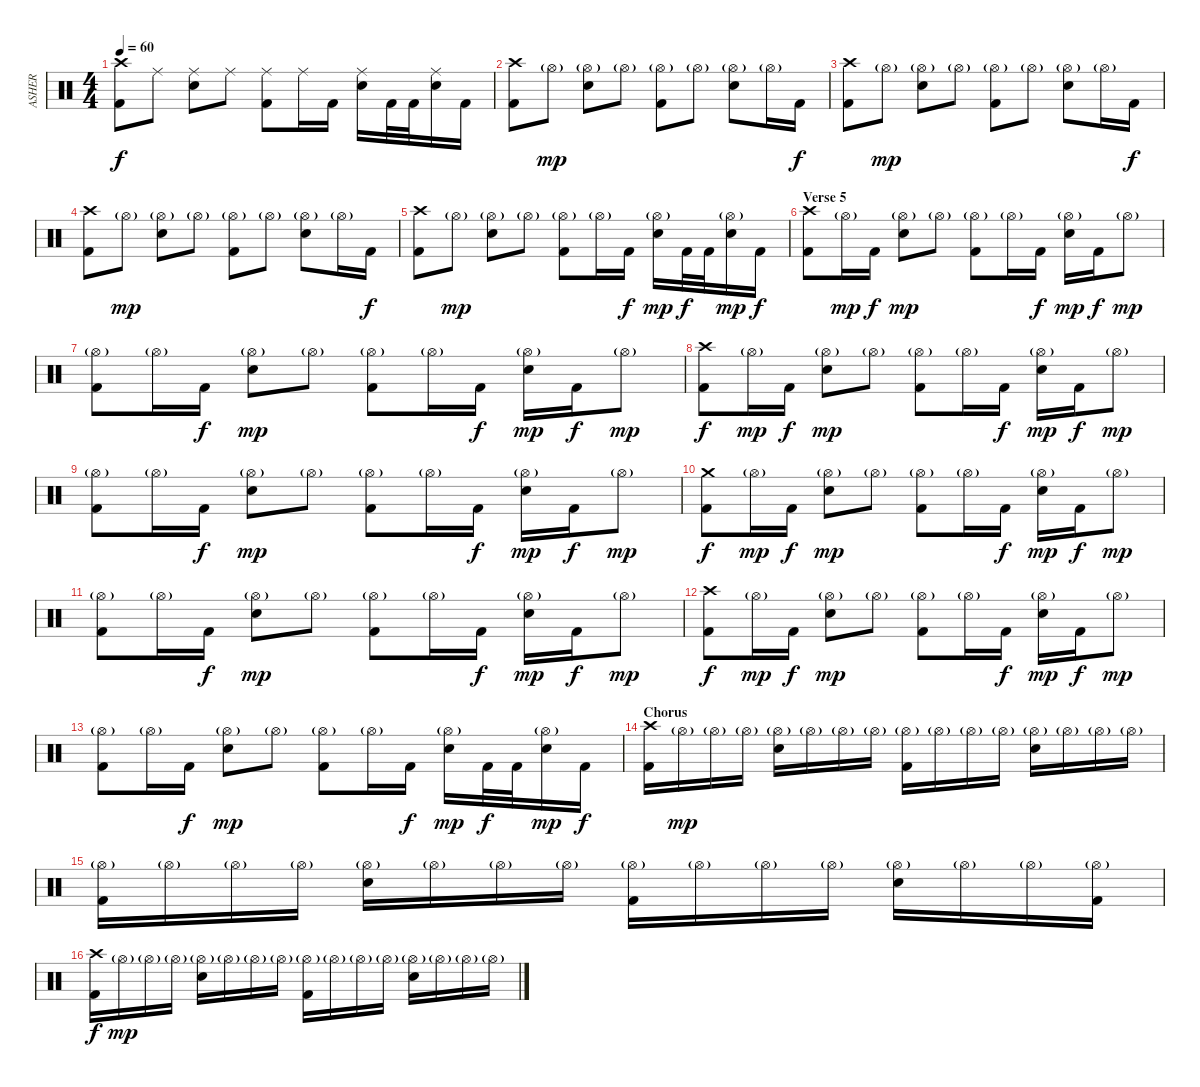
\track ("ASHER" "ASHER") {instrument percussion}
\staff {score}
\articulation defaults
\ts (4 4)
\tempo 60
\clef neutral
\ks c
("Crash high (hit)" "Kick (hit) 2").8{dy f} "Ride (middle)".8 ("Ride (middle)" "Electric Snare (hit)").8 "Ride (middle)".8 ("Ride (middle)" "Kick (hit) 2").8 "Ride (middle)".16 "Kick (hit) 2".16 ("Ride (middle)" "Electric Snare (hit)").16 "Kick (hit) 2".32 "Kick (hit) 2".32 ("Ride (middle)" "Electric Snare (hit)").16 "Kick (hit) 2".16 |
("Crash high (hit)" "Kick (hit) 2").8 "Hi-Hat (open)"{g}.8{dy mp} ("Hi-Hat (open)"{g} "Electric Snare (hit)").8 "Hi-Hat (open)"{g}.8 ("Hi-Hat (open)"{g} "Kick (hit) 2").8 "Hi-Hat (open)"{g}.8 ("Hi-Hat (open)"{g} "Electric Snare (hit)").8 "Hi-Hat (open)"{g}.16 "Kick (hit) 2".16{dy f} |
("Crash high (hit)" "Kick (hit) 2").8 "Hi-Hat (open)"{g}.8{dy mp} ("Hi-Hat (open)"{g} "Electric Snare (hit)").8 "Hi-Hat (open)"{g}.8 ("Hi-Hat (open)"{g} "Kick (hit) 2").8 "Hi-Hat (open)"{g}.8 ("Hi-Hat (open)"{g} "Electric Snare (hit)").8 "Hi-Hat (open)"{g}.16 "Kick (hit) 2".16{dy f} |
("Crash high (hit)" "Kick (hit) 2").8 "Hi-Hat (open)"{g}.8{dy mp} ("Hi-Hat (open)"{g} "Electric Snare (hit)").8 "Hi-Hat (open)"{g}.8 ("Hi-Hat (open)"{g} "Kick (hit) 2").8 "Hi-Hat (open)"{g}.8 ("Hi-Hat (open)"{g} "Electric Snare (hit)").8 "Hi-Hat (open)"{g}.16 "Kick (hit) 2".16{dy f} |
("Crash high (hit)" "Kick (hit) 2").8 "Hi-Hat (open)"{g}.8{dy mp} ("Hi-Hat (open)"{g} "Electric Snare (hit)").8 "Hi-Hat (open)"{g}.8 ("Hi-Hat (open)"{g} "Kick (hit) 2").8 "Hi-Hat (open)"{g}.16 "Kick (hit) 2".16{dy f} ("Hi-Hat (open)"{g} "Electric Snare (hit)").16{dy mp} "Kick (hit) 2".32{dy f} "Kick (hit) 2".32 ("Hi-Hat (open)"{g} "Electric Snare (hit)").16{dy mp} "Kick (hit) 2".16{dy f} |
\section ("" "Verse 5")
("Crash high (hit)" "Kick (hit) 2").8 "Hi-Hat (open)"{g}.16{dy mp} "Kick (hit) 2".16{dy f} ("Hi-Hat (open)"{g} "Electric Snare (hit)").8{dy mp} "Hi-Hat (open)"{g}.8 ("Hi-Hat (open)"{g} "Kick (hit) 2").8 "Hi-Hat (open)"{g}.16 "Kick (hit) 2".16{dy f} ("Hi-Hat (open)"{g} "Electric Snare (hit)").16{dy mp} "Kick (hit) 2".16{dy f} "Hi-Hat (open)"{g}.8{dy mp} |
("Hi-Hat (open)"{g} "Kick (hit) 2").8 "Hi-Hat (open)"{g}.16 "Kick (hit) 2".16{dy f} ("Hi-Hat (open)"{g} "Electric Snare (hit)").8{dy mp} "Hi-Hat (open)"{g}.8 ("Hi-Hat (open)"{g} "Kick (hit) 2").8 "Hi-Hat (open)"{g}.16 "Kick (hit) 2".16{dy f} ("Hi-Hat (open)"{g} "Electric Snare (hit)").16{dy mp} "Kick (hit) 2".16{dy f} "Hi-Hat (open)"{g}.8{dy mp} |
("Crash high (hit)" "Kick (hit) 2").8{dy f} "Hi-Hat (open)"{g}.16{dy mp} "Kick (hit) 2".16{dy f} ("Hi-Hat (open)"{g} "Electric Snare (hit)").8{dy mp} "Hi-Hat (open)"{g}.8 ("Hi-Hat (open)"{g} "Kick (hit) 2").8 "Hi-Hat (open)"{g}.16 "Kick (hit) 2".16{dy f} ("Hi-Hat (open)"{g} "Electric Snare (hit)").16{dy mp} "Kick (hit) 2".16{dy f} "Hi-Hat (open)"{g}.8{dy mp} |
("Hi-Hat (open)"{g} "Kick (hit) 2").8 "Hi-Hat (open)"{g}.16 "Kick (hit) 2".16{dy f} ("Hi-Hat (open)"{g} "Electric Snare (hit)").8{dy mp} "Hi-Hat (open)"{g}.8 ("Hi-Hat (open)"{g} "Kick (hit) 2").8 "Hi-Hat (open)"{g}.16 "Kick (hit) 2".16{dy f} ("Hi-Hat (open)"{g} "Electric Snare (hit)").16{dy mp} "Kick (hit) 2".16{dy f} "Hi-Hat (open)"{g}.8{dy mp} |
("Crash medium (hit)" "Kick (hit) 2").8{dy f} "Hi-Hat (open)"{g}.16{dy mp} "Kick (hit) 2".16{dy f} ("Hi-Hat (open)"{g} "Electric Snare (hit)").8{dy mp} "Hi-Hat (open)"{g}.8 ("Hi-Hat (open)"{g} "Kick (hit) 2").8 "Hi-Hat (open)"{g}.16 "Kick (hit) 2".16{dy f} ("Hi-Hat (open)"{g} "Electric Snare (hit)").16{dy mp} "Kick (hit) 2".16{dy f} "Hi-Hat (open)"{g}.8{dy mp} |
("Hi-Hat (open)"{g} "Kick (hit) 2").8 "Hi-Hat (open)"{g}.16 "Kick (hit) 2".16{dy f} ("Hi-Hat (open)"{g} "Electric Snare (hit)").8{dy mp} "Hi-Hat (open)"{g}.8 ("Hi-Hat (open)"{g} "Kick (hit) 2").8 "Hi-Hat (open)"{g}.16 "Kick (hit) 2".16{dy f} ("Hi-Hat (open)"{g} "Electric Snare (hit)").16{dy mp} "Kick (hit) 2".16{dy f} "Hi-Hat (open)"{g}.8{dy mp} |
("Crash high (hit)" "Kick (hit) 2").8{dy f} "Hi-Hat (open)"{g}.16{dy mp} "Kick (hit) 2".16{dy f} ("Hi-Hat (open)"{g} "Electric Snare (hit)").8{dy mp} "Hi-Hat (open)"{g}.8 ("Hi-Hat (open)"{g} "Kick (hit) 2").8 "Hi-Hat (open)"{g}.16 "Kick (hit) 2".16{dy f} ("Hi-Hat (open)"{g} "Electric Snare (hit)").16{dy mp} "Kick (hit) 2".16{dy f} "Hi-Hat (open)"{g}.8{dy mp} |
("Hi-Hat (open)"{g} "Kick (hit) 2").8 "Hi-Hat (open)"{g}.16 "Kick (hit) 2".16{dy f} ("Hi-Hat (open)"{g} "Electric Snare (hit)").8{dy mp} "Hi-Hat (open)"{g}.8 ("Hi-Hat (open)"{g} "Kick (hit) 2").8 "Hi-Hat (open)"{g}.16 "Kick (hit) 2".16{dy f} ("Hi-Hat (open)"{g} "Electric Snare (hit)").16{dy mp} "Kick (hit) 2".32{dy f} "Kick (hit) 2".32 ("Hi-Hat (open)"{g} "Electric Snare (hit)").16{dy mp} "Kick (hit) 2".16{dy f} |
\section ("" "Chorus ")
("Crash high (hit)" "Kick (hit) 2").16 "Hi-Hat (open)"{g}.16{dy mp} "Hi-Hat (open)"{g}.16 "Hi-Hat (open)"{g}.16 ("Hi-Hat (open)"{g} "Electric Snare (hit)").16 "Hi-Hat (open)"{g}.16 "Hi-Hat (open)"{g}.16 "Hi-Hat (open)"{g}.16 ("Hi-Hat (open)"{g} "Kick (hit) 2").16 "Hi-Hat (open)"{g}.16 "Hi-Hat (open)"{g}.16 "Hi-Hat (open)"{g}.16 ("Hi-Hat (open)"{g} "Electric Snare (hit)").16 "Hi-Hat (open)"{g}.16 "Hi-Hat (open)"{g}.16 "Hi-Hat (open)"{g}.16 |
("Hi-Hat (open)"{g} "Kick (hit) 2").16 "Hi-Hat (open)"{g}.16 "Hi-Hat (open)"{g}.16 "Hi-Hat (open)"{g}.16 ("Hi-Hat (open)"{g} "Electric Snare (hit)").16 "Hi-Hat (open)"{g}.16 "Hi-Hat (open)"{g}.16 "Hi-Hat (open)"{g}.16 ("Hi-Hat (open)"{g} "Kick (hit) 2").16 "Hi-Hat (open)"{g}.16 "Hi-Hat (open)"{g}.16 "Hi-Hat (open)"{g}.16 ("Hi-Hat (open)"{g} "Electric Snare (hit)").16 "Hi-Hat (open)"{g}.16 "Hi-Hat (open)"{g}.16 ("Hi-Hat (open)"{g} "Kick (hit) 2").16 |
("Crash high (hit)" "Kick (hit) 2").16{dy f} "Hi-Hat (open)"{g}.16{dy mp} "Hi-Hat (open)"{g}.16 "Hi-Hat (open)"{g}.16 ("Hi-Hat (open)"{g} "Electric Snare (hit)").16 "Hi-Hat (open)"{g}.16 "Hi-Hat (open)"{g}.16 "Hi-Hat (open)"{g}.16 ("Hi-Hat (open)"{g} "Kick (hit) 2").16 "Hi-Hat (open)"{g}.16 "Hi-Hat (open)"{g}.16 "Hi-Hat (open)"{g}.16 ("Hi-Hat (open)"{g} "Electric Snare (hit)").16 "Hi-Hat (open)"{g}.16 "Hi-Hat (open)"{g}.16 "Hi-Hat (open)"{g}.16
